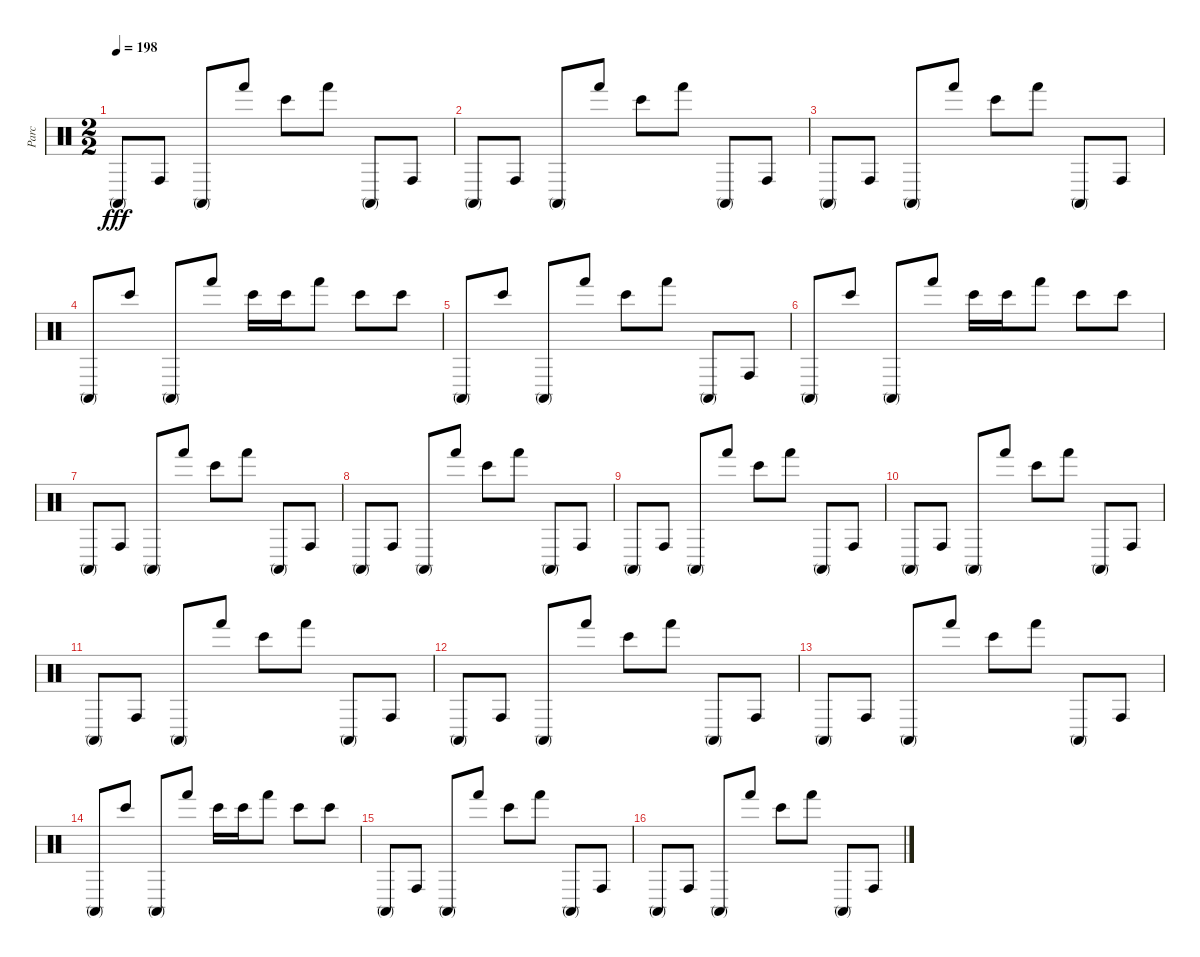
\track ("Parc" "Parc") {instrument percussion}
\staff {score}
\articulation defaults
\ts (2 2)
\tempo 198
\clef neutral
\ks c "Conga high (mute)".8{dy fff} "Conga high (hit)".8 "Conga high (mute)".8 "Hand (hit)".8 "Bongo High (hit)".8 "Hand (hit)".8 "Conga high (mute)".8 "Conga high (hit)".8
|
"Conga high (mute)".8 "Conga high (hit)".8 "Conga high (mute)".8 "Hand (hit)".8 "Bongo High (hit)".8 "Hand (hit)".8 "Conga high (mute)".8 "Conga high (hit)".8 |
"Conga high (mute)".8 "Conga high (hit)".8 "Conga high (mute)".8 "Hand (hit)".8 "Bongo High (hit)".8 "Hand (hit)".8 "Conga high (mute)".8 "Conga high (hit)".8 |
"Conga high (mute)".8 "Bongo High (hit)".8 "Conga high (mute)".8 "Hand (hit)".8 "Bongo High (hit)".16 "Bongo High (hit)".16 "Hand (hit)".8 "Bongo High (hit)".8 "Bongo High (hit)".8 |
"Conga high (mute)".8 "Bongo High (hit)".8 "Conga high (mute)".8 "Hand (hit)".8 "Bongo High (hit)".8 "Hand (hit)".8 "Conga high (mute)".8 "Conga high (hit)".8 |
"Conga high (mute)".8 "Bongo High (hit)".8 "Conga high (mute)".8 "Hand (hit)".8 "Bongo High (hit)".16 "Bongo High (hit)".16 "Hand (hit)".8 "Bongo High (hit)".8 "Bongo High (hit)".8 |
"Conga high (mute)".8 "Conga high (hit)".8 "Conga high (mute)".8 "Hand (hit)".8 "Bongo High (hit)".8 "Hand (hit)".8 "Conga high (mute)".8 "Conga high (hit)".8 |
"Conga high (mute)".8 "Conga high (hit)".8 "Conga high (mute)".8 "Hand (hit)".8 "Bongo High (hit)".8 "Hand (hit)".8 "Conga high (mute)".8 "Conga high (hit)".8 |
"Conga high (mute)".8 "Conga high (hit)".8 "Conga high (mute)".8 "Hand (hit)".8 "Bongo High (hit)".8 "Hand (hit)".8 "Conga high (mute)".8 "Conga high (hit)".8 |
"Conga high (mute)".8 "Conga high (hit)".8 "Conga high (mute)".8 "Hand (hit)".8 "Bongo High (hit)".8 "Hand (hit)".8 "Conga high (mute)".8 "Conga high (hit)".8 |
"Conga high (mute)".8 "Conga high (hit)".8 "Conga high (mute)".8 "Hand (hit)".8 "Bongo High (hit)".8 "Hand (hit)".8 "Conga high (mute)".8 "Conga high (hit)".8 |
"Conga high (mute)".8 "Conga high (hit)".8 "Conga high (mute)".8 "Hand (hit)".8 "Bongo High (hit)".8 "Hand (hit)".8 "Conga high (mute)".8 "Conga high (hit)".8 |
"Conga high (mute)".8 "Conga high (hit)".8 "Conga high (mute)".8 "Hand (hit)".8 "Bongo High (hit)".8 "Hand (hit)".8 "Conga high (mute)".8 "Conga high (hit)".8 |
"Conga high (mute)".8 "Bongo High (hit)".8 "Conga high (mute)".8 "Hand (hit)".8 "Bongo High (hit)".16 "Bongo High (hit)".16 "Hand (hit)".8 "Bongo High (hit)".8 "Bongo High (hit)".8 |
"Conga high (mute)".8 "Conga high (hit)".8 "Conga high (mute)".8 "Hand (hit)".8 "Bongo High (hit)".8 "Hand (hit)".8 "Conga high (mute)".8 "Conga high (hit)".8 |
"Conga high (mute)".8 "Conga high (hit)".8 "Conga high (mute)".8 "Hand (hit)".8 "Bongo High (hit)".8 "Hand (hit)".8 "Conga high (mute)".8 "Conga high (hit)".8
